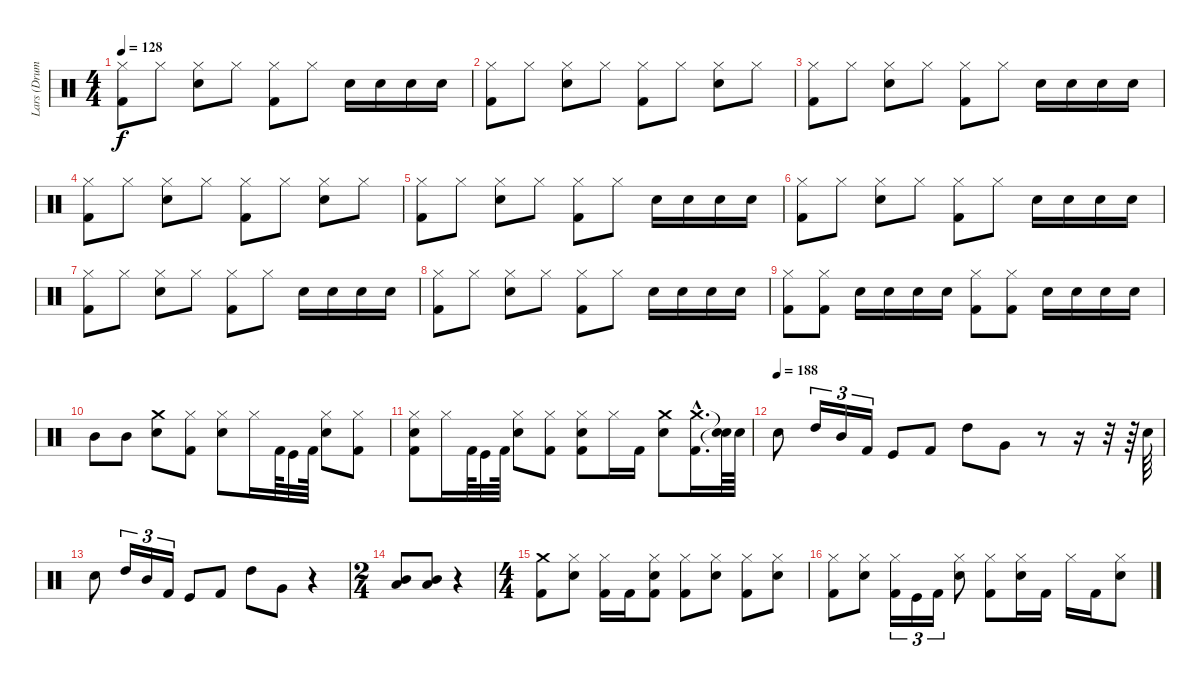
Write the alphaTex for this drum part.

\track ("Lars (Drums)" "Lars (Drum") {instrument percussion}
\staff {score}
\articulation defaults
\ts (4 4)
\tempo 128
\clef neutral
\ks c
("Hi-Hat (closed)" "Kick (hit) 2").8{dy f} "Hi-Hat (closed)".8 ("Snare (hit) 2" "Hi-Hat (closed)").8 "Hi-Hat (closed)".8 ("Hi-Hat (closed)" "Kick (hit) 2").8 "Hi-Hat (closed)".8 "Snare (hit) 2".16 "Snare (hit) 2".16 "Snare (hit) 2".16 "Snare (hit) 2".16 |
("Hi-Hat (closed)" "Kick (hit) 2").8 "Hi-Hat (closed)".8 ("Snare (hit) 2" "Hi-Hat (closed)").8 "Hi-Hat (closed)".8 ("Hi-Hat (closed)" "Kick (hit) 2").8 "Hi-Hat (closed)".8 ("Snare (hit) 2" "Hi-Hat (closed)").8 "Hi-Hat (closed)".8 |
("Hi-Hat (closed)" "Kick (hit) 2").8 "Hi-Hat (closed)".8 ("Snare (hit) 2" "Hi-Hat (closed)").8 "Hi-Hat (closed)".8 ("Hi-Hat (closed)" "Kick (hit) 2").8 "Hi-Hat (closed)".8 "Snare (hit) 2".16 "Snare (hit) 2".16 "Snare (hit) 2".16 "Snare (hit) 2".16 |
("Hi-Hat (closed)" "Kick (hit) 2").8 "Hi-Hat (closed)".8 ("Snare (hit) 2" "Hi-Hat (closed)").8 "Hi-Hat (closed)".8 ("Hi-Hat (closed)" "Kick (hit) 2").8 "Hi-Hat (closed)".8 ("Snare (hit) 2" "Hi-Hat (closed)").8 "Hi-Hat (closed)".8 |
("Hi-Hat (closed)" "Kick (hit) 2").8 "Hi-Hat (closed)".8 ("Snare (hit) 2" "Hi-Hat (closed)").8 "Hi-Hat (closed)".8 ("Hi-Hat (closed)" "Kick (hit) 2").8 "Hi-Hat (closed)".8 "Snare (hit) 2".16 "Snare (hit) 2".16 "Snare (hit) 2".16 "Snare (hit) 2".16 |
("Hi-Hat (closed)" "Kick (hit) 2").8 "Hi-Hat (closed)".8 ("Snare (hit) 2" "Hi-Hat (closed)").8 "Hi-Hat (closed)".8 ("Hi-Hat (closed)" "Kick (hit) 2").8 "Hi-Hat (closed)".8 "Snare (hit) 2".16 "Snare (hit) 2".16 "Snare (hit) 2".16 "Snare (hit) 2".16 |
("Hi-Hat (closed)" "Kick (hit) 2").8 "Hi-Hat (closed)".8 ("Snare (hit) 2" "Hi-Hat (closed)").8 "Hi-Hat (closed)".8 ("Hi-Hat (closed)" "Kick (hit) 2").8 "Hi-Hat (closed)".8 "Snare (hit) 2".16 "Snare (hit) 2".16 "Snare (hit) 2".16 "Snare (hit) 2".16 |
("Hi-Hat (closed)" "Kick (hit) 2").8 "Hi-Hat (closed)".8 ("Snare (hit) 2" "Hi-Hat (closed)").8 "Hi-Hat (closed)".8 ("Hi-Hat (closed)" "Kick (hit) 2").8 "Hi-Hat (closed)".8 "Snare (hit) 2".16 "Snare (hit) 2".16 "Snare (hit) 2".16 "Snare (hit) 2".16 |
("Kick (hit) 2" "Hi-Hat (closed)").8 ("Kick (hit) 2" "Hi-Hat (closed)").8 "Snare (hit) 2".16 "Snare (hit) 2".16 "Snare (hit) 2".16 "Snare (hit) 2".16 ("Kick (hit) 2" "Hi-Hat (closed)").8 ("Kick (hit) 2" "Hi-Hat (closed)").8 "Snare (hit) 2".16 "Snare (hit) 2".16 "Snare (hit) 2".16 "Snare (hit) 2".16 |
"Mid Tom (hit)".8 "Mid Tom (hit)".8 ("Crash medium (hit)" "Snare (hit) 2").8 ("Kick (hit) 2" "Hi-Hat (closed)").8 ("Snare (hit) 2" "Hi-Hat (closed)").8 "Hi-Hat (closed)".16 "Kick (hit) 2".64 "Kick (hit)".32 "Kick (hit) 2".64 ("Snare (hit) 2" "Hi-Hat (closed)").8 ("Kick (hit) 2" "Hi-Hat (closed)").8 |
("Hi-Hat (closed)" "Snare (hit) 2" "Kick (hit) 2").8 "Hi-Hat (closed)".16 "Kick (hit) 2".64 "Kick (hit)".32 "Kick (hit) 2".64 ("Snare (hit) 2" "Hi-Hat (closed)").8 ("Hi-Hat (closed)" "Kick (hit) 2").8 ("Snare (hit) 2" "Hi-Hat (closed)" "Kick (hit) 2").8 "Hi-Hat (closed)".16 "Kick (hit) 2".16 ("Crash medium (hit)" "Snare (hit) 2").8 ("Crash medium (hit)"{hac} "Kick (hit) 2"{hac}).16{d} ("Snare (hit)"{t} "Snare (hit)"{t}).64 "Snare (hit) 2".64 |
\tempo (188)
"Snare (hit) 2".8 "High Tom (hit)".16{tu (3 2)} "Mid Tom (hit)".16{tu (3 2)} "Kick (hit) 2".16{tu (3 2)} "Kick (hit)".8 "Kick (hit) 2".8 "High Tom (hit)".8 "Very Low Tom (hit)".8 r.8 r.16 r.32 r.64 "Snare (hit) 2".64 |
"Snare (hit) 2".8 "High Tom (hit)".16{tu (3 2)} "Mid Tom (hit)".16{tu (3 2)} "Kick (hit) 2".16{tu (3 2)} "Kick (hit)".8 "Kick (hit) 2".8 "High Tom (hit)".8 "Very Low Tom (hit)".8 r.4 |
\ts (2 4)
("Mid Tom (hit)" "Low Tom (hit)").8 ("Mid Tom (hit)" "Low Tom (hit)").8 r.4 |
\ts (4 4)
("Kick (hit) 2" "Crash medium (hit)").8 ("Hi-Hat (closed)" "Snare (hit) 2").8 ("Kick (hit) 2" "Hi-Hat (closed)").16 "Kick (hit) 2".16 ("Kick (hit) 2" "Snare (hit) 2" "Hi-Hat (closed)").8 ("Kick (hit) 2" "Hi-Hat (closed)").8 ("Snare (hit) 2" "Hi-Hat (closed)").8 ("Kick (hit) 2" "Hi-Hat (closed)").8 ("Snare (hit) 2" "Hi-Hat (closed)").8 |
("Kick (hit) 2" "Hi-Hat (closed)").8 ("Snare (hit) 2" "Hi-Hat (closed)").8 ("Kick (hit) 2" "Hi-Hat (closed)").16{tu (3 2)} "Kick (hit)".16{tu (3 2)} "Kick (hit) 2".16{tu (3 2)} ("Snare (hit) 2" "Hi-Hat (closed)").8 ("Kick (hit) 2" "Hi-Hat (closed)").8 ("Snare (hit) 2" "Hi-Hat (closed)").16 "Kick (hit) 2".16 "Hi-Hat (closed)".16 "Kick (hit) 2".16 ("Snare (hit) 2" "Hi-Hat (closed)").8
